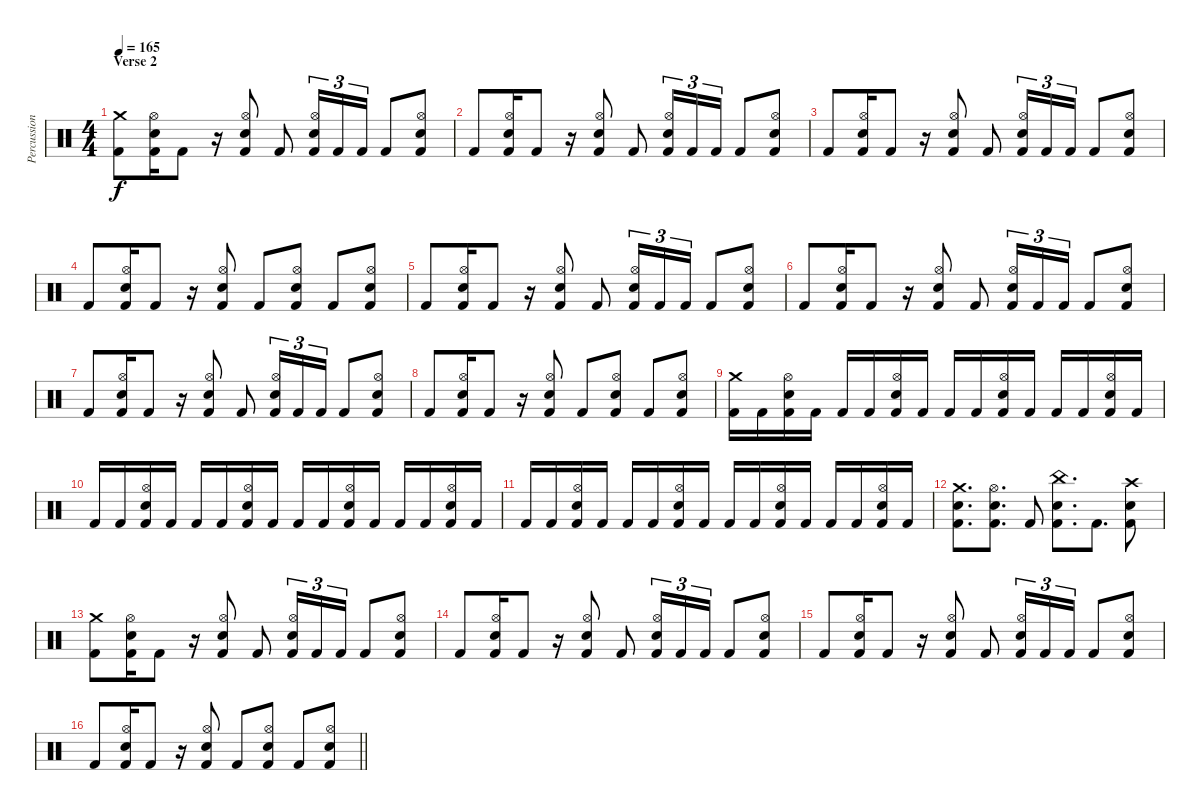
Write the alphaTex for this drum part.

\track ("Percussion" "Percussion") {instrument percussion}
\staff {score}
\articulation defaults
\ts (4 4)
\section ("" "Verse 2")
\tempo 165
\clef neutral
\ks c
("Crash medium (hit)" "Kick (hit) 2").8{dy f} ("Hi-Hat (open)" "Kick (hit) 2" "Snare (hit) 2").16 "Kick (hit) 2".8 r.16 ("Hi-Hat (open)" "Kick (hit) 2" "Snare (hit) 2").8 "Kick (hit) 2".8 ("Hi-Hat (open)" "Kick (hit) 2" "Snare (hit) 2").16{tu (3 2)} "Kick (hit) 2".16{tu (3 2)} "Kick (hit) 2".16{tu (3 2)} "Kick (hit) 2".8 ("Hi-Hat (open)" "Kick (hit) 2" "Snare (hit) 2").8 |
"Kick (hit) 2".8 ("Hi-Hat (open)" "Kick (hit) 2" "Snare (hit) 2").16 "Kick (hit) 2".8 r.16 ("Hi-Hat (open)" "Kick (hit) 2" "Snare (hit) 2").8 "Kick (hit) 2".8 ("Hi-Hat (open)" "Kick (hit) 2" "Snare (hit) 2").16{tu (3 2)} "Kick (hit) 2".16{tu (3 2)} "Kick (hit) 2".16{tu (3 2)} "Kick (hit) 2".8 ("Hi-Hat (open)" "Kick (hit) 2" "Snare (hit) 2").8 |
"Kick (hit) 2".8 ("Hi-Hat (open)" "Kick (hit) 2" "Snare (hit) 2").16 "Kick (hit) 2".8 r.16 ("Hi-Hat (open)" "Kick (hit) 2" "Snare (hit) 2").8 "Kick (hit) 2".8 ("Hi-Hat (open)" "Kick (hit) 2" "Snare (hit) 2").16{tu (3 2)} "Kick (hit) 2".16{tu (3 2)} "Kick (hit) 2".16{tu (3 2)} "Kick (hit) 2".8 ("Hi-Hat (open)" "Kick (hit) 2" "Snare (hit) 2").8 |
"Kick (hit) 2".8 ("Hi-Hat (open)" "Kick (hit) 2" "Snare (hit) 2").16 "Kick (hit) 2".8 r.16 ("Hi-Hat (open)" "Kick (hit) 2" "Snare (hit) 2").8 "Kick (hit) 2".8 ("Hi-Hat (open)" "Kick (hit) 2" "Snare (hit) 2").8 "Kick (hit) 2".8 ("Hi-Hat (open)" "Kick (hit) 2" "Snare (hit) 2").8 |
"Kick (hit) 2".8 ("Hi-Hat (open)" "Kick (hit) 2" "Snare (hit) 2").16 "Kick (hit) 2".8 r.16 ("Hi-Hat (open)" "Kick (hit) 2" "Snare (hit) 2").8 "Kick (hit) 2".8 ("Hi-Hat (open)" "Kick (hit) 2" "Snare (hit) 2").16{tu (3 2)} "Kick (hit) 2".16{tu (3 2)} "Kick (hit) 2".16{tu (3 2)} "Kick (hit) 2".8 ("Hi-Hat (open)" "Kick (hit) 2" "Snare (hit) 2").8 |
"Kick (hit) 2".8 ("Hi-Hat (open)" "Kick (hit) 2" "Snare (hit) 2").16 "Kick (hit) 2".8 r.16 ("Hi-Hat (open)" "Kick (hit) 2" "Snare (hit) 2").8 "Kick (hit) 2".8 ("Hi-Hat (open)" "Kick (hit) 2" "Snare (hit) 2").16{tu (3 2)} "Kick (hit) 2".16{tu (3 2)} "Kick (hit) 2".16{tu (3 2)} "Kick (hit) 2".8 ("Hi-Hat (open)" "Kick (hit) 2" "Snare (hit) 2").8 |
"Kick (hit) 2".8 ("Hi-Hat (open)" "Kick (hit) 2" "Snare (hit) 2").16 "Kick (hit) 2".8 r.16 ("Hi-Hat (open)" "Kick (hit) 2" "Snare (hit) 2").8 "Kick (hit) 2".8 ("Hi-Hat (open)" "Kick (hit) 2" "Snare (hit) 2").16{tu (3 2)} "Kick (hit) 2".16{tu (3 2)} "Kick (hit) 2".16{tu (3 2)} "Kick (hit) 2".8 ("Hi-Hat (open)" "Kick (hit) 2" "Snare (hit) 2").8 |
"Kick (hit) 2".8 ("Hi-Hat (open)" "Kick (hit) 2" "Snare (hit) 2").16 "Kick (hit) 2".8 r.16 ("Hi-Hat (open)" "Kick (hit) 2" "Snare (hit) 2").8 "Kick (hit) 2".8 ("Hi-Hat (open)" "Kick (hit) 2" "Snare (hit) 2").8 "Kick (hit) 2".8 ("Hi-Hat (open)" "Kick (hit) 2" "Snare (hit) 2").8 |
("Crash medium (hit)" "Kick (hit) 2").16 "Kick (hit) 2".16 ("Hi-Hat (open)" "Kick (hit) 2" "Snare (hit) 2").16 "Kick (hit) 2".16 "Kick (hit) 2".16 "Kick (hit) 2".16 ("Hi-Hat (open)" "Kick (hit) 2" "Snare (hit) 2").16 "Kick (hit) 2".16 "Kick (hit) 2".16 "Kick (hit) 2".16 ("Hi-Hat (open)" "Kick (hit) 2" "Snare (hit) 2").16 "Kick (hit) 2".16 "Kick (hit) 2".16 "Kick (hit) 2".16 ("Hi-Hat (open)" "Kick (hit) 2" "Snare (hit) 2").16 "Kick (hit) 2".16 |
"Kick (hit) 2".16 "Kick (hit) 2".16 ("Hi-Hat (open)" "Kick (hit) 2" "Snare (hit) 2").16 "Kick (hit) 2".16 "Kick (hit) 2".16 "Kick (hit) 2".16 ("Hi-Hat (open)" "Kick (hit) 2" "Snare (hit) 2").16 "Kick (hit) 2".16 "Kick (hit) 2".16 "Kick (hit) 2".16 ("Hi-Hat (open)" "Kick (hit) 2" "Snare (hit) 2").16 "Kick (hit) 2".16 "Kick (hit) 2".16 "Kick (hit) 2".16 ("Hi-Hat (open)" "Kick (hit) 2" "Snare (hit) 2").16 "Kick (hit) 2".16 |
"Kick (hit) 2".16 "Kick (hit) 2".16 ("Hi-Hat (open)" "Kick (hit) 2" "Snare (hit) 2").16 "Kick (hit) 2".16 "Kick (hit) 2".16 "Kick (hit) 2".16 ("Hi-Hat (open)" "Kick (hit) 2" "Snare (hit) 2").16 "Kick (hit) 2".16 "Kick (hit) 2".16 "Kick (hit) 2".16 ("Hi-Hat (open)" "Kick (hit) 2" "Snare (hit) 2").16 "Kick (hit) 2".16 "Kick (hit) 2".16 "Kick (hit) 2".16 ("Hi-Hat (open)" "Kick (hit) 2" "Snare (hit) 2").16 "Kick (hit) 2".16 |
("Crash medium (hit)" "Kick (hit) 2" "Snare (hit) 2").8{d} ("Hi-Hat (open)" "Kick (hit) 2" "Snare (hit) 2").8{d} "Kick (hit) 2".8 ("China (hit)" "Kick (hit) 2" "Snare (hit) 2").8{d} "Kick (hit) 2".8{d} ("Crash high (hit)" "Kick (hit) 2" "Snare (hit) 2").8 |
("Crash medium (hit)" "Kick (hit) 2").8 ("Hi-Hat (open)" "Kick (hit) 2" "Snare (hit) 2").16 "Kick (hit) 2".8 r.16 ("Hi-Hat (open)" "Kick (hit) 2" "Snare (hit) 2").8 "Kick (hit) 2".8 ("Hi-Hat (open)" "Kick (hit) 2" "Snare (hit) 2").16{tu (3 2)} "Kick (hit) 2".16{tu (3 2)} "Kick (hit) 2".16{tu (3 2)} "Kick (hit) 2".8 ("Hi-Hat (open)" "Kick (hit) 2" "Snare (hit) 2").8 |
"Kick (hit) 2".8 ("Hi-Hat (open)" "Kick (hit) 2" "Snare (hit) 2").16 "Kick (hit) 2".8 r.16 ("Hi-Hat (open)" "Kick (hit) 2" "Snare (hit) 2").8 "Kick (hit) 2".8 ("Hi-Hat (open)" "Kick (hit) 2" "Snare (hit) 2").16{tu (3 2)} "Kick (hit) 2".16{tu (3 2)} "Kick (hit) 2".16{tu (3 2)} "Kick (hit) 2".8 ("Hi-Hat (open)" "Kick (hit) 2" "Snare (hit) 2").8 |
"Kick (hit) 2".8 ("Hi-Hat (open)" "Kick (hit) 2" "Snare (hit) 2").16 "Kick (hit) 2".8 r.16 ("Hi-Hat (open)" "Kick (hit) 2" "Snare (hit) 2").8 "Kick (hit) 2".8 ("Hi-Hat (open)" "Kick (hit) 2" "Snare (hit) 2").16{tu (3 2)} "Kick (hit) 2".16{tu (3 2)} "Kick (hit) 2".16{tu (3 2)} "Kick (hit) 2".8 ("Hi-Hat (open)" "Kick (hit) 2" "Snare (hit) 2").8 |
\barLineRight lightlight "Kick (hit) 2".8
("Hi-Hat (open)" "Kick (hit) 2" "Snare (hit) 2").16 "Kick (hit) 2".8 r.16 ("Hi-Hat (open)" "Kick (hit) 2" "Snare (hit) 2").8 "Kick (hit) 2".8 ("Hi-Hat (open)" "Kick (hit) 2" "Snare (hit) 2").8 "Kick (hit) 2".8 ("Hi-Hat (open)" "Kick (hit) 2" "Snare (hit) 2").8
